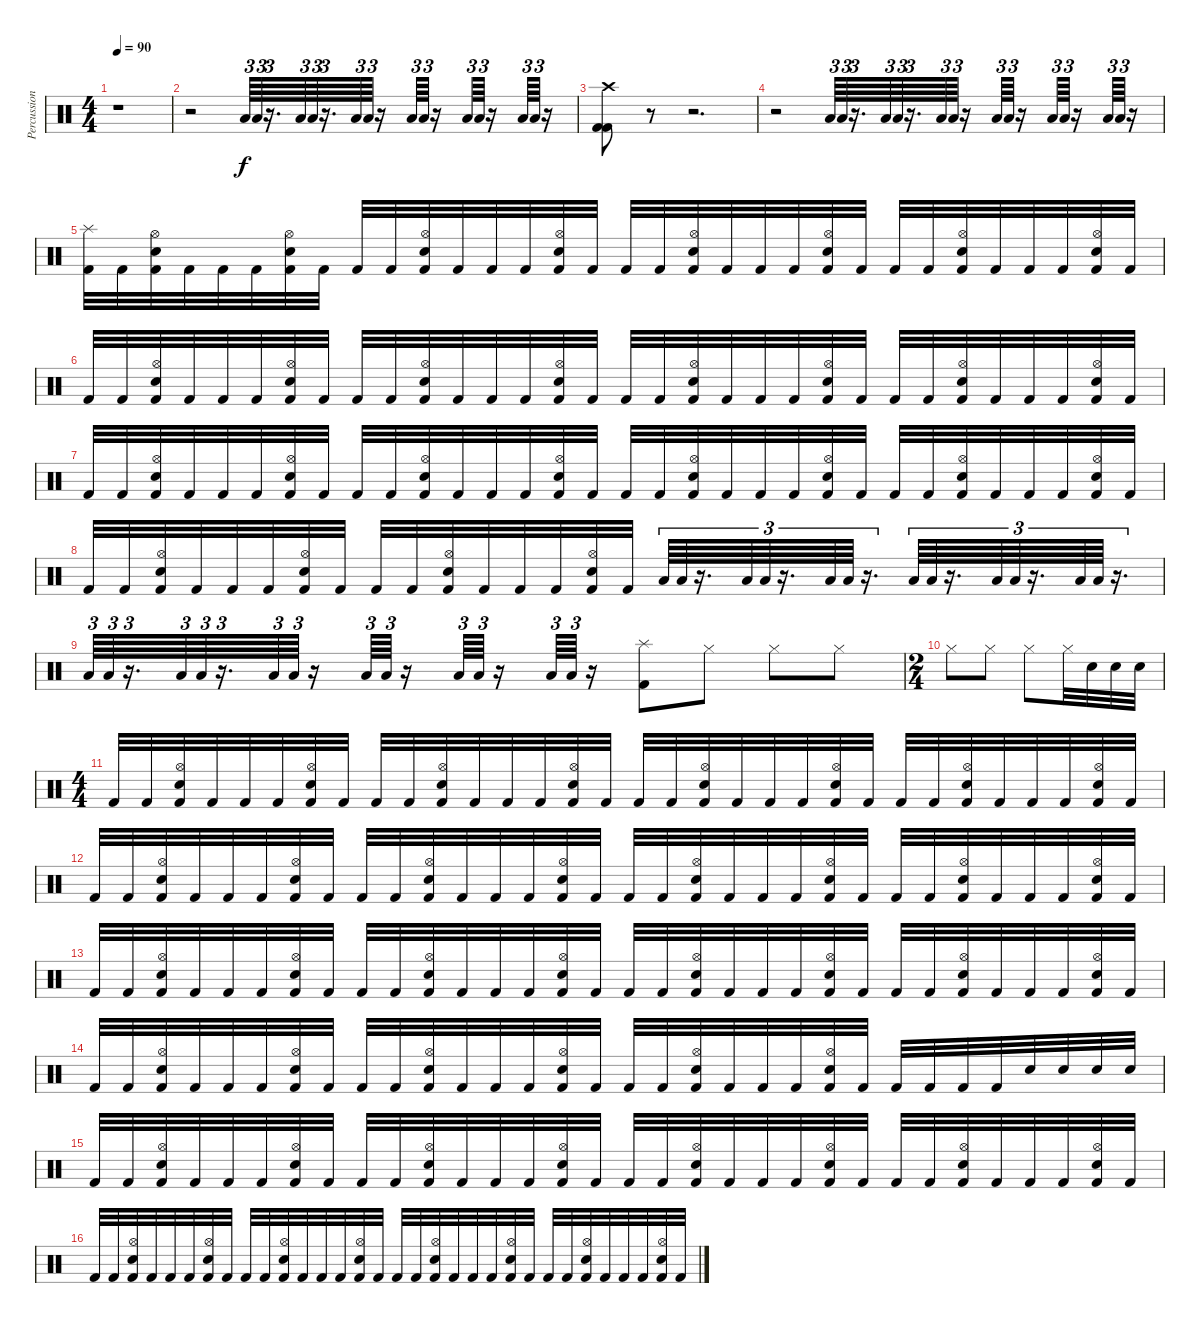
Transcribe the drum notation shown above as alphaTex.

\track ("Percussions" "Percussion") {instrument percussion}
\staff {score}
\articulation defaults
\ts (4 4)
\tempo 90
\clef neutral
\ks c
r.1{dy f} |
r.2 "Low Tom (hit)".64{tu (3 2)} "Low Tom (hit)".64{tu (3 2)} r.16{d tu (3 2)} "Low Tom (hit)".64{tu (3 2)} "Low Tom (hit)".64{tu (3 2)} r.16{d tu (3 2)} "Low Tom (hit)".64{tu (3 2)} "Low Tom (hit)".64{tu (3 2)} r.16 "Low Tom (hit)".64{tu (3 2)} "Low Tom (hit)".64{tu (3 2)} r.16 "Low Tom (hit)".64{tu (3 2)} "Low Tom (hit)".64{tu (3 2)} r.16 "Low Tom (hit)".64{tu (3 2)} "Low Tom (hit)".64{tu (3 2)} r.16 |
("Crash high (hit)" "Kick (hit) 2" "Kick (hit) 2").8 r.8 r.2{d} |
r.2 "Low Tom (hit)".64{tu (3 2)} "Low Tom (hit)".64{tu (3 2)} r.16{d tu (3 2)} "Low Tom (hit)".64{tu (3 2)} "Low Tom (hit)".64{tu (3 2)} r.16{d tu (3 2)} "Low Tom (hit)".64{tu (3 2)} "Low Tom (hit)".64{tu (3 2)} r.16 "Low Tom (hit)".64{tu (3 2)} "Low Tom (hit)".64{tu (3 2)} r.16 "Low Tom (hit)".64{tu (3 2)} "Low Tom (hit)".64{tu (3 2)} r.16 "Low Tom (hit)".64{tu (3 2)} "Low Tom (hit)".64{tu (3 2)} r.16 |
("Splash (hit)" "Kick (hit) 2").32 "Kick (hit) 2".32 ("Hi-Hat (open)" "Electric Snare (hit)" "Kick (hit) 2").32 "Kick (hit) 2".32 "Kick (hit) 2".32 "Kick (hit) 2".32 ("Hi-Hat (open)" "Electric Snare (hit)" "Kick (hit) 2").32 "Kick (hit) 2".32 "Kick (hit) 2".32 "Kick (hit) 2".32 ("Hi-Hat (open)" "Electric Snare (hit)" "Kick (hit) 2").32 "Kick (hit) 2".32 "Kick (hit) 2".32 "Kick (hit) 2".32 ("Hi-Hat (open)" "Electric Snare (hit)" "Kick (hit) 2").32 "Kick (hit) 2".32 "Kick (hit) 2".32 "Kick (hit) 2".32 ("Hi-Hat (open)" "Electric Snare (hit)" "Kick (hit) 2").32 "Kick (hit) 2".32 "Kick (hit) 2".32 "Kick (hit) 2".32 ("Hi-Hat (open)" "Electric Snare (hit)" "Kick (hit) 2").32 "Kick (hit) 2".32 "Kick (hit) 2".32 "Kick (hit) 2".32 ("Hi-Hat (open)" "Electric Snare (hit)" "Kick (hit) 2").32 "Kick (hit) 2".32 "Kick (hit) 2".32 "Kick (hit) 2".32 ("Hi-Hat (open)" "Electric Snare (hit)" "Kick (hit) 2").32 "Kick (hit) 2".32 |
"Kick (hit) 2".32 "Kick (hit) 2".32 ("Hi-Hat (open)" "Electric Snare (hit)" "Kick (hit) 2").32 "Kick (hit) 2".32 "Kick (hit) 2".32 "Kick (hit) 2".32 ("Hi-Hat (open)" "Electric Snare (hit)" "Kick (hit) 2").32 "Kick (hit) 2".32 "Kick (hit) 2".32 "Kick (hit) 2".32 ("Hi-Hat (open)" "Electric Snare (hit)" "Kick (hit) 2").32 "Kick (hit) 2".32 "Kick (hit) 2".32 "Kick (hit) 2".32 ("Hi-Hat (open)" "Electric Snare (hit)" "Kick (hit) 2").32 "Kick (hit) 2".32 "Kick (hit) 2".32 "Kick (hit) 2".32 ("Hi-Hat (open)" "Electric Snare (hit)" "Kick (hit) 2").32 "Kick (hit) 2".32 "Kick (hit) 2".32 "Kick (hit) 2".32 ("Hi-Hat (open)" "Electric Snare (hit)" "Kick (hit) 2").32 "Kick (hit) 2".32 "Kick (hit) 2".32 "Kick (hit) 2".32 ("Hi-Hat (open)" "Electric Snare (hit)" "Kick (hit) 2").32 "Kick (hit) 2".32 "Kick (hit) 2".32 "Kick (hit) 2".32 ("Hi-Hat (open)" "Electric Snare (hit)" "Kick (hit) 2").32 "Kick (hit) 2".32 |
"Kick (hit) 2".32 "Kick (hit) 2".32 ("Hi-Hat (open)" "Electric Snare (hit)" "Kick (hit) 2").32 "Kick (hit) 2".32 "Kick (hit) 2".32 "Kick (hit) 2".32 ("Hi-Hat (open)" "Electric Snare (hit)" "Kick (hit) 2").32 "Kick (hit) 2".32 "Kick (hit) 2".32 "Kick (hit) 2".32 ("Hi-Hat (open)" "Electric Snare (hit)" "Kick (hit) 2").32 "Kick (hit) 2".32 "Kick (hit) 2".32 "Kick (hit) 2".32 ("Hi-Hat (open)" "Electric Snare (hit)" "Kick (hit) 2").32 "Kick (hit) 2".32 "Kick (hit) 2".32 "Kick (hit) 2".32 ("Hi-Hat (open)" "Electric Snare (hit)" "Kick (hit) 2").32 "Kick (hit) 2".32 "Kick (hit) 2".32 "Kick (hit) 2".32 ("Hi-Hat (open)" "Electric Snare (hit)" "Kick (hit) 2").32 "Kick (hit) 2".32 "Kick (hit) 2".32 "Kick (hit) 2".32 ("Hi-Hat (open)" "Electric Snare (hit)" "Kick (hit) 2").32 "Kick (hit) 2".32 "Kick (hit) 2".32 "Kick (hit) 2".32 ("Hi-Hat (open)" "Electric Snare (hit)" "Kick (hit) 2").32 "Kick (hit) 2".32 |
"Kick (hit) 2".32 "Kick (hit) 2".32 ("Hi-Hat (open)" "Electric Snare (hit)" "Kick (hit) 2").32 "Kick (hit) 2".32 "Kick (hit) 2".32 "Kick (hit) 2".32 ("Hi-Hat (open)" "Electric Snare (hit)" "Kick (hit) 2").32 "Kick (hit) 2".32 "Kick (hit) 2".32 "Kick (hit) 2".32 ("Hi-Hat (open)" "Electric Snare (hit)" "Kick (hit) 2").32 "Kick (hit) 2".32 "Kick (hit) 2".32 "Kick (hit) 2".32 ("Hi-Hat (open)" "Electric Snare (hit)" "Kick (hit) 2").32 "Kick (hit) 2".32 "Low Tom (hit)".64{tu (3 2)} "Low Tom (hit)".64{tu (3 2)} r.16{d tu (3 2)} "Low Tom (hit)".64{tu (3 2)} "Low Tom (hit)".64{tu (3 2)} r.16{d tu (3 2)} "Low Tom (hit)".64{tu (3 2)} "Low Tom (hit)".64{tu (3 2)} r.16{d tu (3 2)} "Low Tom (hit)".64{tu (3 2)} "Low Tom (hit)".64{tu (3 2)} r.16{d tu (3 2)} "Low Tom (hit)".64{tu (3 2)} "Low Tom (hit)".64{tu (3 2)} r.16{d tu (3 2)} "Low Tom (hit)".64{tu (3 2)} "Low Tom (hit)".64{tu (3 2)} r.16{d tu (3 2)} |
"Low Tom (hit)".64{tu (3 2)} "Low Tom (hit)".64{tu (3 2)} r.16{d tu (3 2)} "Low Tom (hit)".64{tu (3 2)} "Low Tom (hit)".64{tu (3 2)} r.16{d tu (3 2)} "Low Tom (hit)".64{tu (3 2)} "Low Tom (hit)".64{tu (3 2)} r.16 "Low Tom (hit)".64{tu (3 2)} "Low Tom (hit)".64{tu (3 2)} r.16 "Low Tom (hit)".64{tu (3 2)} "Low Tom (hit)".64{tu (3 2)} r.16 "Low Tom (hit)".64{tu (3 2)} "Low Tom (hit)".64{tu (3 2)} r.16 ("Splash (hit)" "Kick (hit) 2").8 "Hi-Hat (closed)".8 "Hi-Hat (closed)".8 "Hi-Hat (closed)".8 |
\ts (2 4)
"Hi-Hat (closed)".8 "Hi-Hat (closed)".8 "Hi-Hat (closed)".8 "Hi-Hat (closed)".32 "Electric Snare (hit)".32 "Electric Snare (hit)".32 "Electric Snare (hit)".32 |
\ts (4 4)
"Kick (hit) 2".32 "Kick (hit) 2".32 ("Hi-Hat (open)" "Electric Snare (hit)" "Kick (hit) 2").32 "Kick (hit) 2".32 "Kick (hit) 2".32 "Kick (hit) 2".32 ("Hi-Hat (open)" "Electric Snare (hit)" "Kick (hit) 2").32 "Kick (hit) 2".32 "Kick (hit) 2".32 "Kick (hit) 2".32 ("Hi-Hat (open)" "Electric Snare (hit)" "Kick (hit) 2").32 "Kick (hit) 2".32 "Kick (hit) 2".32 "Kick (hit) 2".32 ("Hi-Hat (open)" "Electric Snare (hit)" "Kick (hit) 2").32 "Kick (hit) 2".32 "Kick (hit) 2".32 "Kick (hit) 2".32 ("Hi-Hat (open)" "Electric Snare (hit)" "Kick (hit) 2").32 "Kick (hit) 2".32 "Kick (hit) 2".32 "Kick (hit) 2".32 ("Hi-Hat (open)" "Electric Snare (hit)" "Kick (hit) 2").32 "Kick (hit) 2".32 "Kick (hit) 2".32 "Kick (hit) 2".32 ("Hi-Hat (open)" "Electric Snare (hit)" "Kick (hit) 2").32 "Kick (hit) 2".32 "Kick (hit) 2".32 "Kick (hit) 2".32 ("Hi-Hat (open)" "Electric Snare (hit)" "Kick (hit) 2").32 "Kick (hit) 2".32 |
"Kick (hit) 2".32 "Kick (hit) 2".32 ("Hi-Hat (open)" "Electric Snare (hit)" "Kick (hit) 2").32 "Kick (hit) 2".32 "Kick (hit) 2".32 "Kick (hit) 2".32 ("Hi-Hat (open)" "Electric Snare (hit)" "Kick (hit) 2").32 "Kick (hit) 2".32 "Kick (hit) 2".32 "Kick (hit) 2".32 ("Hi-Hat (open)" "Electric Snare (hit)" "Kick (hit) 2").32 "Kick (hit) 2".32 "Kick (hit) 2".32 "Kick (hit) 2".32 ("Hi-Hat (open)" "Electric Snare (hit)" "Kick (hit) 2").32 "Kick (hit) 2".32 "Kick (hit) 2".32 "Kick (hit) 2".32 ("Hi-Hat (open)" "Electric Snare (hit)" "Kick (hit) 2").32 "Kick (hit) 2".32 "Kick (hit) 2".32 "Kick (hit) 2".32 ("Hi-Hat (open)" "Electric Snare (hit)" "Kick (hit) 2").32 "Kick (hit) 2".32 "Kick (hit) 2".32 "Kick (hit) 2".32 ("Hi-Hat (open)" "Electric Snare (hit)" "Kick (hit) 2").32 "Kick (hit) 2".32 "Kick (hit) 2".32 "Kick (hit) 2".32 ("Hi-Hat (open)" "Electric Snare (hit)" "Kick (hit) 2").32 "Kick (hit) 2".32 |
"Kick (hit) 2".32 "Kick (hit) 2".32 ("Hi-Hat (open)" "Electric Snare (hit)" "Kick (hit) 2").32 "Kick (hit) 2".32 "Kick (hit) 2".32 "Kick (hit) 2".32 ("Hi-Hat (open)" "Electric Snare (hit)" "Kick (hit) 2").32 "Kick (hit) 2".32 "Kick (hit) 2".32 "Kick (hit) 2".32 ("Hi-Hat (open)" "Electric Snare (hit)" "Kick (hit) 2").32 "Kick (hit) 2".32 "Kick (hit) 2".32 "Kick (hit) 2".32 ("Hi-Hat (open)" "Electric Snare (hit)" "Kick (hit) 2").32 "Kick (hit) 2".32 "Kick (hit) 2".32 "Kick (hit) 2".32 ("Hi-Hat (open)" "Electric Snare (hit)" "Kick (hit) 2").32 "Kick (hit) 2".32 "Kick (hit) 2".32 "Kick (hit) 2".32 ("Hi-Hat (open)" "Electric Snare (hit)" "Kick (hit) 2").32 "Kick (hit) 2".32 "Kick (hit) 2".32 "Kick (hit) 2".32 ("Hi-Hat (open)" "Electric Snare (hit)" "Kick (hit) 2").32 "Kick (hit) 2".32 "Kick (hit) 2".32 "Kick (hit) 2".32 ("Hi-Hat (open)" "Electric Snare (hit)" "Kick (hit) 2").32 "Kick (hit) 2".32 |
"Kick (hit) 2".32 "Kick (hit) 2".32 ("Hi-Hat (open)" "Electric Snare (hit)" "Kick (hit) 2").32 "Kick (hit) 2".32 "Kick (hit) 2".32 "Kick (hit) 2".32 ("Hi-Hat (open)" "Electric Snare (hit)" "Kick (hit) 2").32 "Kick (hit) 2".32 "Kick (hit) 2".32 "Kick (hit) 2".32 ("Hi-Hat (open)" "Electric Snare (hit)" "Kick (hit) 2").32 "Kick (hit) 2".32 "Kick (hit) 2".32 "Kick (hit) 2".32 ("Hi-Hat (open)" "Electric Snare (hit)" "Kick (hit) 2").32 "Kick (hit) 2".32 "Kick (hit) 2".32 "Kick (hit) 2".32 ("Hi-Hat (open)" "Electric Snare (hit)" "Kick (hit) 2").32 "Kick (hit) 2".32 "Kick (hit) 2".32 "Kick (hit) 2".32 ("Hi-Hat (open)" "Electric Snare (hit)" "Kick (hit) 2").32 "Kick (hit) 2".32 "Kick (hit) 2".32 "Kick (hit) 2".32 "Kick (hit) 2".32 "Kick (hit) 2".32 "Electric Snare (hit)".32 "Electric Snare (hit)".32 "Electric Snare (hit)".32 "Electric Snare (hit)".32 |
"Kick (hit) 2".32 "Kick (hit) 2".32 ("Hi-Hat (open)" "Electric Snare (hit)" "Kick (hit) 2").32 "Kick (hit) 2".32 "Kick (hit) 2".32 "Kick (hit) 2".32 ("Hi-Hat (open)" "Electric Snare (hit)" "Kick (hit) 2").32 "Kick (hit) 2".32 "Kick (hit) 2".32 "Kick (hit) 2".32 ("Hi-Hat (open)" "Electric Snare (hit)" "Kick (hit) 2").32 "Kick (hit) 2".32 "Kick (hit) 2".32 "Kick (hit) 2".32 ("Hi-Hat (open)" "Electric Snare (hit)" "Kick (hit) 2").32 "Kick (hit) 2".32 "Kick (hit) 2".32 "Kick (hit) 2".32 ("Hi-Hat (open)" "Electric Snare (hit)" "Kick (hit) 2").32 "Kick (hit) 2".32 "Kick (hit) 2".32 "Kick (hit) 2".32 ("Hi-Hat (open)" "Electric Snare (hit)" "Kick (hit) 2").32 "Kick (hit) 2".32 "Kick (hit) 2".32 "Kick (hit) 2".32 ("Hi-Hat (open)" "Electric Snare (hit)" "Kick (hit) 2").32 "Kick (hit) 2".32 "Kick (hit) 2".32 "Kick (hit) 2".32 ("Hi-Hat (open)" "Electric Snare (hit)" "Kick (hit) 2").32 "Kick (hit) 2".32 |
"Kick (hit) 2".32 "Kick (hit) 2".32 ("Hi-Hat (open)" "Electric Snare (hit)" "Kick (hit) 2").32 "Kick (hit) 2".32 "Kick (hit) 2".32 "Kick (hit) 2".32 ("Hi-Hat (open)" "Electric Snare (hit)" "Kick (hit) 2").32 "Kick (hit) 2".32 "Kick (hit) 2".32 "Kick (hit) 2".32 ("Hi-Hat (open)" "Electric Snare (hit)" "Kick (hit) 2").32 "Kick (hit) 2".32 "Kick (hit) 2".32 "Kick (hit) 2".32 ("Hi-Hat (open)" "Electric Snare (hit)" "Kick (hit) 2").32 "Kick (hit) 2".32 "Kick (hit) 2".32 "Kick (hit) 2".32 ("Hi-Hat (open)" "Electric Snare (hit)" "Kick (hit) 2").32 "Kick (hit) 2".32 "Kick (hit) 2".32 "Kick (hit) 2".32 ("Hi-Hat (open)" "Electric Snare (hit)" "Kick (hit) 2").32 "Kick (hit) 2".32 "Kick (hit) 2".32 "Kick (hit) 2".32 ("Hi-Hat (open)" "Electric Snare (hit)" "Kick (hit) 2").32 "Kick (hit) 2".32 "Kick (hit) 2".32 "Kick (hit) 2".32 ("Hi-Hat (open)" "Electric Snare (hit)" "Kick (hit) 2").32 "Kick (hit) 2".32
